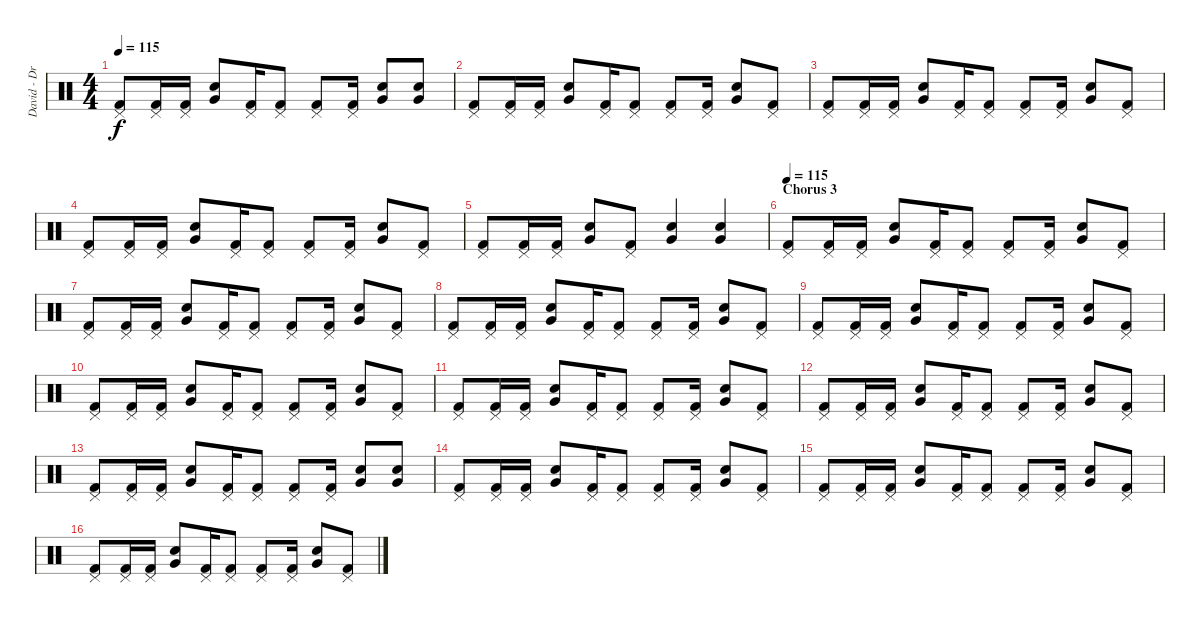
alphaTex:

\track ("David - Drums" "David - Dr") {instrument percussion}
\staff {score}
\articulation defaults
\ts (4 4)
\tempo 115
\clef neutral
\ks c
("Kick (hit) 2" "Pedal Hi-Hat (hit)").8{dy f} ("Kick (hit) 2" "Pedal Hi-Hat (hit)").16 ("Kick (hit) 2" "Pedal Hi-Hat (hit)").16 ("Snare (hit) 2" "Very Low Tom (hit)").8 ("Kick (hit) 2" "Pedal Hi-Hat (hit)").16 ("Kick (hit) 2" "Pedal Hi-Hat (hit)").8 ("Kick (hit) 2" "Pedal Hi-Hat (hit)").8 ("Kick (hit) 2" "Pedal Hi-Hat (hit)").16 ("Snare (hit) 2" "Very Low Tom (hit)").8 ("Snare (hit) 2" "Very Low Tom (hit)").8 |
("Kick (hit) 2" "Pedal Hi-Hat (hit)").8 ("Kick (hit) 2" "Pedal Hi-Hat (hit)").16 ("Kick (hit) 2" "Pedal Hi-Hat (hit)").16 ("Snare (hit) 2" "Very Low Tom (hit)").8 ("Kick (hit) 2" "Pedal Hi-Hat (hit)").16 ("Kick (hit) 2" "Pedal Hi-Hat (hit)").8 ("Kick (hit) 2" "Pedal Hi-Hat (hit)").8 ("Kick (hit) 2" "Pedal Hi-Hat (hit)").16 ("Snare (hit) 2" "Very Low Tom (hit)").8 ("Kick (hit) 2" "Pedal Hi-Hat (hit)").8 |
("Kick (hit) 2" "Pedal Hi-Hat (hit)").8 ("Kick (hit) 2" "Pedal Hi-Hat (hit)").16 ("Kick (hit) 2" "Pedal Hi-Hat (hit)").16 ("Snare (hit) 2" "Very Low Tom (hit)").8 ("Kick (hit) 2" "Pedal Hi-Hat (hit)").16 ("Kick (hit) 2" "Pedal Hi-Hat (hit)").8 ("Kick (hit) 2" "Pedal Hi-Hat (hit)").8 ("Kick (hit) 2" "Pedal Hi-Hat (hit)").16 ("Snare (hit) 2" "Very Low Tom (hit)").8 ("Kick (hit) 2" "Pedal Hi-Hat (hit)").8 |
("Kick (hit) 2" "Pedal Hi-Hat (hit)").8 ("Kick (hit) 2" "Pedal Hi-Hat (hit)").16 ("Kick (hit) 2" "Pedal Hi-Hat (hit)").16 ("Snare (hit) 2" "Very Low Tom (hit)").8 ("Kick (hit) 2" "Pedal Hi-Hat (hit)").16 ("Kick (hit) 2" "Pedal Hi-Hat (hit)").8 ("Kick (hit) 2" "Pedal Hi-Hat (hit)").8 ("Kick (hit) 2" "Pedal Hi-Hat (hit)").16 ("Snare (hit) 2" "Very Low Tom (hit)").8 ("Kick (hit) 2" "Pedal Hi-Hat (hit)").8 |
("Kick (hit) 2" "Pedal Hi-Hat (hit)").8 ("Kick (hit) 2" "Pedal Hi-Hat (hit)").16 ("Kick (hit) 2" "Pedal Hi-Hat (hit)").16 ("Snare (hit) 2" "Very Low Tom (hit)").8 ("Kick (hit) 2" "Pedal Hi-Hat (hit)").8 ("Snare (hit) 2" "Very Low Tom (hit)").4 ("Snare (hit) 2" "Very Low Tom (hit)").4 |
\section ("" "Chorus 3")
\tempo 115
("Kick (hit) 2" "Pedal Hi-Hat (hit)").8 ("Kick (hit) 2" "Pedal Hi-Hat (hit)").16 ("Kick (hit) 2" "Pedal Hi-Hat (hit)").16 ("Snare (hit) 2" "Very Low Tom (hit)").8 ("Kick (hit) 2" "Pedal Hi-Hat (hit)").16 ("Kick (hit) 2" "Pedal Hi-Hat (hit)").8 ("Kick (hit) 2" "Pedal Hi-Hat (hit)").8 ("Kick (hit) 2" "Pedal Hi-Hat (hit)").16 ("Snare (hit) 2" "Very Low Tom (hit)").8 ("Kick (hit) 2" "Pedal Hi-Hat (hit)").8 |
("Kick (hit) 2" "Pedal Hi-Hat (hit)").8 ("Kick (hit) 2" "Pedal Hi-Hat (hit)").16 ("Kick (hit) 2" "Pedal Hi-Hat (hit)").16 ("Snare (hit) 2" "Very Low Tom (hit)").8 ("Kick (hit) 2" "Pedal Hi-Hat (hit)").16 ("Kick (hit) 2" "Pedal Hi-Hat (hit)").8 ("Kick (hit) 2" "Pedal Hi-Hat (hit)").8 ("Kick (hit) 2" "Pedal Hi-Hat (hit)").16 ("Snare (hit) 2" "Very Low Tom (hit)").8 ("Kick (hit) 2" "Pedal Hi-Hat (hit)").8 |
("Kick (hit) 2" "Pedal Hi-Hat (hit)").8 ("Kick (hit) 2" "Pedal Hi-Hat (hit)").16 ("Kick (hit) 2" "Pedal Hi-Hat (hit)").16 ("Snare (hit) 2" "Very Low Tom (hit)").8 ("Kick (hit) 2" "Pedal Hi-Hat (hit)").16 ("Kick (hit) 2" "Pedal Hi-Hat (hit)").8 ("Kick (hit) 2" "Pedal Hi-Hat (hit)").8 ("Kick (hit) 2" "Pedal Hi-Hat (hit)").16 ("Snare (hit) 2" "Very Low Tom (hit)").8 ("Kick (hit) 2" "Pedal Hi-Hat (hit)").8 |
("Kick (hit) 2" "Pedal Hi-Hat (hit)").8 ("Kick (hit) 2" "Pedal Hi-Hat (hit)").16 ("Kick (hit) 2" "Pedal Hi-Hat (hit)").16 ("Snare (hit) 2" "Very Low Tom (hit)").8 ("Kick (hit) 2" "Pedal Hi-Hat (hit)").16 ("Kick (hit) 2" "Pedal Hi-Hat (hit)").8 ("Kick (hit) 2" "Pedal Hi-Hat (hit)").8 ("Kick (hit) 2" "Pedal Hi-Hat (hit)").16 ("Snare (hit) 2" "Very Low Tom (hit)").8 ("Kick (hit) 2" "Pedal Hi-Hat (hit)").8 |
("Kick (hit) 2" "Pedal Hi-Hat (hit)").8 ("Kick (hit) 2" "Pedal Hi-Hat (hit)").16 ("Kick (hit) 2" "Pedal Hi-Hat (hit)").16 ("Snare (hit) 2" "Very Low Tom (hit)").8 ("Kick (hit) 2" "Pedal Hi-Hat (hit)").16 ("Kick (hit) 2" "Pedal Hi-Hat (hit)").8 ("Kick (hit) 2" "Pedal Hi-Hat (hit)").8 ("Kick (hit) 2" "Pedal Hi-Hat (hit)").16 ("Snare (hit) 2" "Very Low Tom (hit)").8 ("Kick (hit) 2" "Pedal Hi-Hat (hit)").8 |
("Kick (hit) 2" "Pedal Hi-Hat (hit)").8 ("Kick (hit) 2" "Pedal Hi-Hat (hit)").16 ("Kick (hit) 2" "Pedal Hi-Hat (hit)").16 ("Snare (hit) 2" "Very Low Tom (hit)").8 ("Kick (hit) 2" "Pedal Hi-Hat (hit)").16 ("Kick (hit) 2" "Pedal Hi-Hat (hit)").8 ("Kick (hit) 2" "Pedal Hi-Hat (hit)").8 ("Kick (hit) 2" "Pedal Hi-Hat (hit)").16 ("Snare (hit) 2" "Very Low Tom (hit)").8 ("Kick (hit) 2" "Pedal Hi-Hat (hit)").8 |
("Kick (hit) 2" "Pedal Hi-Hat (hit)").8 ("Kick (hit) 2" "Pedal Hi-Hat (hit)").16 ("Kick (hit) 2" "Pedal Hi-Hat (hit)").16 ("Snare (hit) 2" "Very Low Tom (hit)").8 ("Kick (hit) 2" "Pedal Hi-Hat (hit)").16 ("Kick (hit) 2" "Pedal Hi-Hat (hit)").8 ("Kick (hit) 2" "Pedal Hi-Hat (hit)").8 ("Kick (hit) 2" "Pedal Hi-Hat (hit)").16 ("Snare (hit) 2" "Very Low Tom (hit)").8 ("Kick (hit) 2" "Pedal Hi-Hat (hit)").8 |
("Kick (hit) 2" "Pedal Hi-Hat (hit)").8 ("Kick (hit) 2" "Pedal Hi-Hat (hit)").16 ("Kick (hit) 2" "Pedal Hi-Hat (hit)").16 ("Snare (hit) 2" "Very Low Tom (hit)").8 ("Kick (hit) 2" "Pedal Hi-Hat (hit)").16 ("Kick (hit) 2" "Pedal Hi-Hat (hit)").8 ("Kick (hit) 2" "Pedal Hi-Hat (hit)").8 ("Kick (hit) 2" "Pedal Hi-Hat (hit)").16 ("Snare (hit) 2" "Very Low Tom (hit)").8 ("Snare (hit) 2" "Very Low Tom (hit)").8 |
("Kick (hit) 2" "Pedal Hi-Hat (hit)").8 ("Kick (hit) 2" "Pedal Hi-Hat (hit)").16 ("Kick (hit) 2" "Pedal Hi-Hat (hit)").16 ("Snare (hit) 2" "Very Low Tom (hit)").8 ("Kick (hit) 2" "Pedal Hi-Hat (hit)").16 ("Kick (hit) 2" "Pedal Hi-Hat (hit)").8 ("Kick (hit) 2" "Pedal Hi-Hat (hit)").8 ("Kick (hit) 2" "Pedal Hi-Hat (hit)").16 ("Snare (hit) 2" "Very Low Tom (hit)").8 ("Kick (hit) 2" "Pedal Hi-Hat (hit)").8 |
("Kick (hit) 2" "Pedal Hi-Hat (hit)").8 ("Kick (hit) 2" "Pedal Hi-Hat (hit)").16 ("Kick (hit) 2" "Pedal Hi-Hat (hit)").16 ("Snare (hit) 2" "Very Low Tom (hit)").8 ("Kick (hit) 2" "Pedal Hi-Hat (hit)").16 ("Kick (hit) 2" "Pedal Hi-Hat (hit)").8 ("Kick (hit) 2" "Pedal Hi-Hat (hit)").8 ("Kick (hit) 2" "Pedal Hi-Hat (hit)").16 ("Snare (hit) 2" "Very Low Tom (hit)").8 ("Kick (hit) 2" "Pedal Hi-Hat (hit)").8 |
("Kick (hit) 2" "Pedal Hi-Hat (hit)").8 ("Kick (hit) 2" "Pedal Hi-Hat (hit)").16 ("Kick (hit) 2" "Pedal Hi-Hat (hit)").16 ("Snare (hit) 2" "Very Low Tom (hit)").8 ("Kick (hit) 2" "Pedal Hi-Hat (hit)").16 ("Kick (hit) 2" "Pedal Hi-Hat (hit)").8 ("Kick (hit) 2" "Pedal Hi-Hat (hit)").8 ("Kick (hit) 2" "Pedal Hi-Hat (hit)").16 ("Snare (hit) 2" "Very Low Tom (hit)").8 ("Kick (hit) 2" "Pedal Hi-Hat (hit)").8
